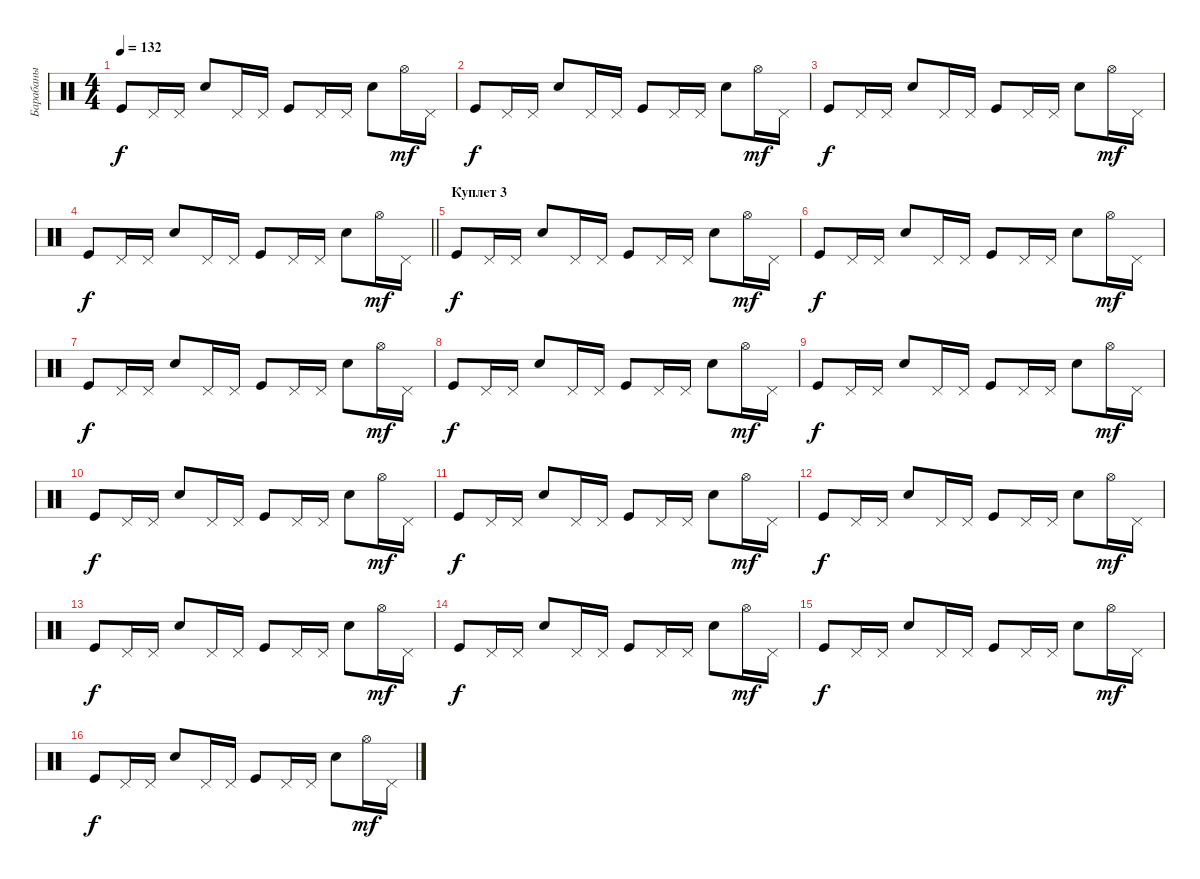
\track ("Барабаны" "Барабаны") {instrument percussion}
\staff {score}
\articulation defaults
\ts (4 4)
\tempo 132
\clef neutral
\ks c "Kick (hit)".8{dy f} "Pedal Hi-Hat (hit)".16 "Pedal Hi-Hat (hit)".16 "Snare (hit) 2".8 "Pedal Hi-Hat (hit)".16 "Pedal Hi-Hat (hit)".16 "Kick (hit)".8 "Pedal Hi-Hat (hit)".16 "Pedal Hi-Hat (hit)".16 "Snare (hit) 2".8 "Hi-Hat (open)".16{dy mf} "Pedal Hi-Hat (hit)".16
|
"Kick (hit)".8{dy f} "Pedal Hi-Hat (hit)".16 "Pedal Hi-Hat (hit)".16 "Snare (hit) 2".8 "Pedal Hi-Hat (hit)".16 "Pedal Hi-Hat (hit)".16 "Kick (hit)".8 "Pedal Hi-Hat (hit)".16 "Pedal Hi-Hat (hit)".16 "Snare (hit) 2".8 "Hi-Hat (open)".16{dy mf} "Pedal Hi-Hat (hit)".16 |
"Kick (hit)".8{dy f} "Pedal Hi-Hat (hit)".16 "Pedal Hi-Hat (hit)".16 "Snare (hit) 2".8 "Pedal Hi-Hat (hit)".16 "Pedal Hi-Hat (hit)".16 "Kick (hit)".8 "Pedal Hi-Hat (hit)".16 "Pedal Hi-Hat (hit)".16 "Snare (hit) 2".8 "Hi-Hat (open)".16{dy mf} "Pedal Hi-Hat (hit)".16 |
\barLineRight lightlight "Kick (hit)".8{dy f} "Pedal Hi-Hat (hit)".16 "Pedal Hi-Hat (hit)".16 "Snare (hit) 2".8 "Pedal Hi-Hat (hit)".16 "Pedal Hi-Hat (hit)".16 "Kick (hit)".8 "Pedal Hi-Hat (hit)".16 "Pedal Hi-Hat (hit)".16 "Snare (hit) 2".8 "Hi-Hat (open)".16{dy mf} "Pedal Hi-Hat (hit)".16
|
\section ("" "Куплет 3")
"Kick (hit)".8{dy f} "Pedal Hi-Hat (hit)".16 "Pedal Hi-Hat (hit)".16 "Snare (hit) 2".8 "Pedal Hi-Hat (hit)".16 "Pedal Hi-Hat (hit)".16 "Kick (hit)".8 "Pedal Hi-Hat (hit)".16 "Pedal Hi-Hat (hit)".16 "Snare (hit) 2".8 "Hi-Hat (open)".16{dy mf} "Pedal Hi-Hat (hit)".16 |
"Kick (hit)".8{dy f} "Pedal Hi-Hat (hit)".16 "Pedal Hi-Hat (hit)".16 "Snare (hit) 2".8 "Pedal Hi-Hat (hit)".16 "Pedal Hi-Hat (hit)".16 "Kick (hit)".8 "Pedal Hi-Hat (hit)".16 "Pedal Hi-Hat (hit)".16 "Snare (hit) 2".8 "Hi-Hat (open)".16{dy mf} "Pedal Hi-Hat (hit)".16 |
"Kick (hit)".8{dy f} "Pedal Hi-Hat (hit)".16 "Pedal Hi-Hat (hit)".16 "Snare (hit) 2".8 "Pedal Hi-Hat (hit)".16 "Pedal Hi-Hat (hit)".16 "Kick (hit)".8 "Pedal Hi-Hat (hit)".16 "Pedal Hi-Hat (hit)".16 "Snare (hit) 2".8 "Hi-Hat (open)".16{dy mf} "Pedal Hi-Hat (hit)".16 |
"Kick (hit)".8{dy f} "Pedal Hi-Hat (hit)".16 "Pedal Hi-Hat (hit)".16 "Snare (hit) 2".8 "Pedal Hi-Hat (hit)".16 "Pedal Hi-Hat (hit)".16 "Kick (hit)".8 "Pedal Hi-Hat (hit)".16 "Pedal Hi-Hat (hit)".16 "Snare (hit) 2".8 "Hi-Hat (open)".16{dy mf} "Pedal Hi-Hat (hit)".16 |
"Kick (hit)".8{dy f} "Pedal Hi-Hat (hit)".16 "Pedal Hi-Hat (hit)".16 "Snare (hit) 2".8 "Pedal Hi-Hat (hit)".16 "Pedal Hi-Hat (hit)".16 "Kick (hit)".8 "Pedal Hi-Hat (hit)".16 "Pedal Hi-Hat (hit)".16 "Snare (hit) 2".8 "Hi-Hat (open)".16{dy mf} "Pedal Hi-Hat (hit)".16 |
"Kick (hit)".8{dy f} "Pedal Hi-Hat (hit)".16 "Pedal Hi-Hat (hit)".16 "Snare (hit) 2".8 "Pedal Hi-Hat (hit)".16 "Pedal Hi-Hat (hit)".16 "Kick (hit)".8 "Pedal Hi-Hat (hit)".16 "Pedal Hi-Hat (hit)".16 "Snare (hit) 2".8 "Hi-Hat (open)".16{dy mf} "Pedal Hi-Hat (hit)".16 |
"Kick (hit)".8{dy f} "Pedal Hi-Hat (hit)".16 "Pedal Hi-Hat (hit)".16 "Snare (hit) 2".8 "Pedal Hi-Hat (hit)".16 "Pedal Hi-Hat (hit)".16 "Kick (hit)".8 "Pedal Hi-Hat (hit)".16 "Pedal Hi-Hat (hit)".16 "Snare (hit) 2".8 "Hi-Hat (open)".16{dy mf} "Pedal Hi-Hat (hit)".16 |
"Kick (hit)".8{dy f} "Pedal Hi-Hat (hit)".16 "Pedal Hi-Hat (hit)".16 "Snare (hit) 2".8 "Pedal Hi-Hat (hit)".16 "Pedal Hi-Hat (hit)".16 "Kick (hit)".8 "Pedal Hi-Hat (hit)".16 "Pedal Hi-Hat (hit)".16 "Snare (hit) 2".8 "Hi-Hat (open)".16{dy mf} "Pedal Hi-Hat (hit)".16 |
"Kick (hit)".8{dy f} "Pedal Hi-Hat (hit)".16 "Pedal Hi-Hat (hit)".16 "Snare (hit) 2".8 "Pedal Hi-Hat (hit)".16 "Pedal Hi-Hat (hit)".16 "Kick (hit)".8 "Pedal Hi-Hat (hit)".16 "Pedal Hi-Hat (hit)".16 "Snare (hit) 2".8 "Hi-Hat (open)".16{dy mf} "Pedal Hi-Hat (hit)".16 |
"Kick (hit)".8{dy f} "Pedal Hi-Hat (hit)".16 "Pedal Hi-Hat (hit)".16 "Snare (hit) 2".8 "Pedal Hi-Hat (hit)".16 "Pedal Hi-Hat (hit)".16 "Kick (hit)".8 "Pedal Hi-Hat (hit)".16 "Pedal Hi-Hat (hit)".16 "Snare (hit) 2".8 "Hi-Hat (open)".16{dy mf} "Pedal Hi-Hat (hit)".16 |
"Kick (hit)".8{dy f} "Pedal Hi-Hat (hit)".16 "Pedal Hi-Hat (hit)".16 "Snare (hit) 2".8 "Pedal Hi-Hat (hit)".16 "Pedal Hi-Hat (hit)".16 "Kick (hit)".8 "Pedal Hi-Hat (hit)".16 "Pedal Hi-Hat (hit)".16 "Snare (hit) 2".8 "Hi-Hat (open)".16{dy mf} "Pedal Hi-Hat (hit)".16 |
"Kick (hit)".8{dy f} "Pedal Hi-Hat (hit)".16 "Pedal Hi-Hat (hit)".16 "Snare (hit) 2".8 "Pedal Hi-Hat (hit)".16 "Pedal Hi-Hat (hit)".16 "Kick (hit)".8 "Pedal Hi-Hat (hit)".16 "Pedal Hi-Hat (hit)".16 "Snare (hit) 2".8 "Hi-Hat (open)".16{dy mf} "Pedal Hi-Hat (hit)".16
